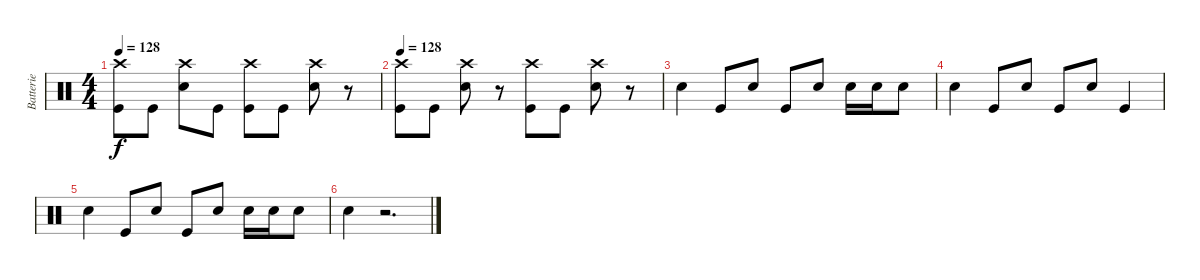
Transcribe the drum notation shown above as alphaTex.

\track ("Batterie" "Batterie") {instrument percussion}
\staff {score}
\articulation defaults
\ts (4 4)
\tempo 128
\clef neutral
\ks c
("Kick (hit)" "Crash high (hit)").8{dy f} "Kick (hit)".8 ("Snare (hit) 2" "Crash high (hit)").8 "Kick (hit)".8 ("Kick (hit)" "Crash high (hit)").8 "Kick (hit)".8 ("Snare (hit) 2" "Crash high (hit)").8 r.8 |
\tempo 128
("Kick (hit)" "Crash high (hit)").8 "Kick (hit)".8 ("Snare (hit) 2" "Crash high (hit)").8 r.8 ("Kick (hit)" "Crash high (hit)").8 "Kick (hit)".8 ("Snare (hit) 2" "Crash high (hit)").8 r.8 |
"Snare (hit) 2".4 "Kick (hit)".8 "Snare (hit) 2".8 "Kick (hit)".8 "Snare (hit) 2".8 "Snare (hit) 2".16 "Snare (hit) 2".16 "Snare (hit) 2".8 |
"Snare (hit) 2".4 "Kick (hit)".8 "Snare (hit) 2".8 "Kick (hit)".8 "Snare (hit) 2".8 "Kick (hit)".4 |
"Snare (hit) 2".4 "Kick (hit)".8 "Snare (hit) 2".8 "Kick (hit)".8 "Snare (hit) 2".8 "Snare (hit) 2".16 "Snare (hit) 2".16 "Snare (hit) 2".8 |
"Snare (hit) 2".4 r.2{d}
